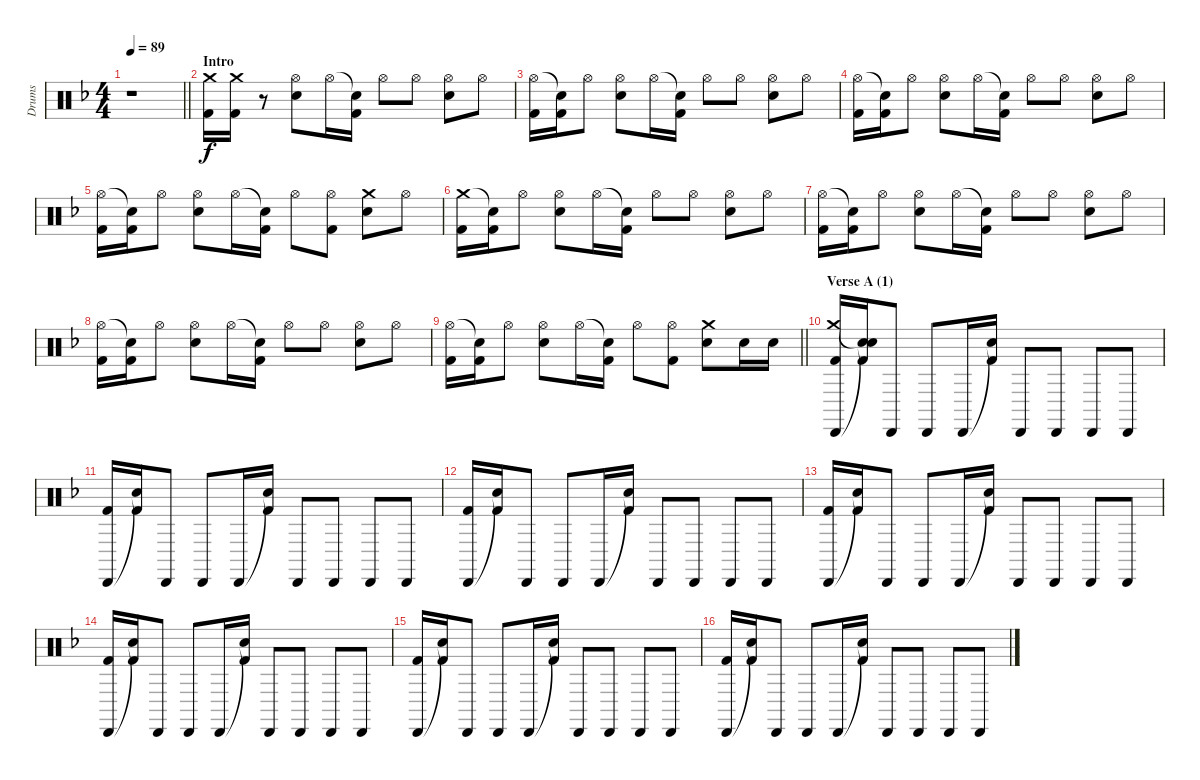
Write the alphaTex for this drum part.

\track ("Drums" "Drums") {instrument percussion}
\staff {score}
\articulation defaults
\ts (4 4)
\tempo 89
\clef neutral
\barLineRight lightlight
\ks dminor
r.1{dy f} |
\section ("" "Intro")
("Crash medium (hit)" "Kick (hit) 2").16 ("Crash medium (hit)" "Kick (hit) 2").16 r.8 ("Hi-Hat (open)" "Electric Snare (hit)").8 "Hi-Hat (open)".16 ("Snare (hit)"{t} "Kick (hit) 2").16 "Hi-Hat (open)".8 "Hi-Hat (open)".8 ("Hi-Hat (open)" "Electric Snare (hit)").8 "Hi-Hat (open)".8 |
("Hi-Hat (open)" "Kick (hit) 2").16 ("Snare (hit)"{t} "Kick (hit) 2").16 "Hi-Hat (open)".8 ("Hi-Hat (open)" "Electric Snare (hit)").8 "Hi-Hat (open)".16 ("Snare (hit)"{t} "Kick (hit) 2").16 "Hi-Hat (open)".8 "Hi-Hat (open)".8 ("Hi-Hat (open)" "Electric Snare (hit)").8 "Hi-Hat (open)".8 |
("Hi-Hat (open)" "Kick (hit) 2").16 ("Snare (hit)"{t} "Kick (hit) 2").16 "Hi-Hat (open)".8 ("Hi-Hat (open)" "Electric Snare (hit)").8 "Hi-Hat (open)".16 ("Snare (hit)"{t} "Kick (hit) 2").16 "Hi-Hat (open)".8 "Hi-Hat (open)".8 ("Hi-Hat (open)" "Electric Snare (hit)").8 "Hi-Hat (open)".8 |
("Hi-Hat (open)" "Kick (hit) 2").16 ("Snare (hit)"{t} "Kick (hit) 2").16 "Hi-Hat (open)".8 ("Hi-Hat (open)" "Electric Snare (hit)").8 "Hi-Hat (open)".16 ("Snare (hit)"{t} "Kick (hit) 2").16 "Hi-Hat (open)".8 ("Hi-Hat (open)" "Kick (hit) 2").8 ("Crash medium (hit)" "Electric Snare (hit)").8 "Hi-Hat (open)".8 |
("Crash medium (hit)" "Kick (hit) 2").16 ("Snare (hit)"{t} "Kick (hit) 2").16 "Hi-Hat (open)".8 ("Hi-Hat (open)" "Electric Snare (hit)").8 "Hi-Hat (open)".16 ("Snare (hit)"{t} "Kick (hit) 2").16 "Hi-Hat (open)".8 "Hi-Hat (open)".8 ("Hi-Hat (open)" "Electric Snare (hit)").8 "Hi-Hat (open)".8 |
("Hi-Hat (open)" "Kick (hit) 2").16 ("Snare (hit)"{t} "Kick (hit) 2").16 "Hi-Hat (open)".8 ("Hi-Hat (open)" "Electric Snare (hit)").8 "Hi-Hat (open)".16 ("Snare (hit)"{t} "Kick (hit) 2").16 "Hi-Hat (open)".8 "Hi-Hat (open)".8 ("Hi-Hat (open)" "Electric Snare (hit)").8 "Hi-Hat (open)".8 |
("Hi-Hat (open)" "Kick (hit) 2").16 ("Snare (hit)"{t} "Kick (hit) 2").16 "Hi-Hat (open)".8 ("Hi-Hat (open)" "Electric Snare (hit)").8 "Hi-Hat (open)".16 ("Snare (hit)"{t} "Kick (hit) 2").16 "Hi-Hat (open)".8 "Hi-Hat (open)".8 ("Hi-Hat (open)" "Electric Snare (hit)").8 "Hi-Hat (open)".8 |
\barLineRight lightlight
("Hi-Hat (open)" "Kick (hit) 2").16 ("Snare (hit)"{t} "Kick (hit) 2").16 "Hi-Hat (open)".8 ("Hi-Hat (open)" "Electric Snare (hit)").8 "Hi-Hat (open)".16 ("Snare (hit)"{t} "Kick (hit) 2").16 "Hi-Hat (open)".8 ("Hi-Hat (open)" "Kick (hit) 2").8 ("Crash medium (hit)" "Electric Snare (hit)").8 "Electric Snare (hit)".16 "Electric Snare (hit)".16 |
\section ("" "Verse A (1)")
("Crash medium (hit)" "Cabasa (hit)" "Kick (hit) 2").16 ("Snare (hit)"{t} "Snare (hit)"{t} "Kick (hit) 2").16 "Cabasa (hit)".8 "Cabasa (hit)".8 "Cabasa (hit)".16 ("Snare (hit)"{t} "Kick (hit) 2").16 "Cabasa (hit)".8 "Cabasa (hit)".8 "Cabasa (hit)".8 "Cabasa (hit)".8 |
("Cabasa (hit)" "Kick (hit) 2").16 ("Snare (hit)"{t} "Kick (hit) 2").16 "Cabasa (hit)".8 "Cabasa (hit)".8 "Cabasa (hit)".16 ("Snare (hit)"{t} "Kick (hit) 2").16 "Cabasa (hit)".8 "Cabasa (hit)".8 "Cabasa (hit)".8 "Cabasa (hit)".8 |
("Cabasa (hit)" "Kick (hit) 2").16 ("Snare (hit)"{t} "Kick (hit) 2").16 "Cabasa (hit)".8 "Cabasa (hit)".8 "Cabasa (hit)".16 ("Snare (hit)"{t} "Kick (hit) 2").16 "Cabasa (hit)".8 "Cabasa (hit)".8 "Cabasa (hit)".8 "Cabasa (hit)".8 |
("Cabasa (hit)" "Kick (hit) 2").16 ("Snare (hit)"{t} "Kick (hit) 2").16 "Cabasa (hit)".8 "Cabasa (hit)".8 "Cabasa (hit)".16 ("Snare (hit)"{t} "Kick (hit) 2").16 "Cabasa (hit)".8 "Cabasa (hit)".8 "Cabasa (hit)".8 "Cabasa (hit)".8 |
("Cabasa (hit)" "Kick (hit) 2").16 ("Snare (hit)"{t} "Kick (hit) 2").16 "Cabasa (hit)".8 "Cabasa (hit)".8 "Cabasa (hit)".16 ("Snare (hit)"{t} "Kick (hit) 2").16 "Cabasa (hit)".8 "Cabasa (hit)".8 "Cabasa (hit)".8 "Cabasa (hit)".8 |
("Cabasa (hit)" "Kick (hit) 2").16 ("Snare (hit)"{t} "Kick (hit) 2").16 "Cabasa (hit)".8 "Cabasa (hit)".8 "Cabasa (hit)".16 ("Snare (hit)"{t} "Kick (hit) 2").16 "Cabasa (hit)".8 "Cabasa (hit)".8 "Cabasa (hit)".8 "Cabasa (hit)".8 |
("Cabasa (hit)" "Kick (hit) 2").16 ("Snare (hit)"{t} "Kick (hit) 2").16 "Cabasa (hit)".8 "Cabasa (hit)".8 "Cabasa (hit)".16 ("Snare (hit)"{t} "Kick (hit) 2").16 "Cabasa (hit)".8 "Cabasa (hit)".8 "Cabasa (hit)".8 "Cabasa (hit)".8
